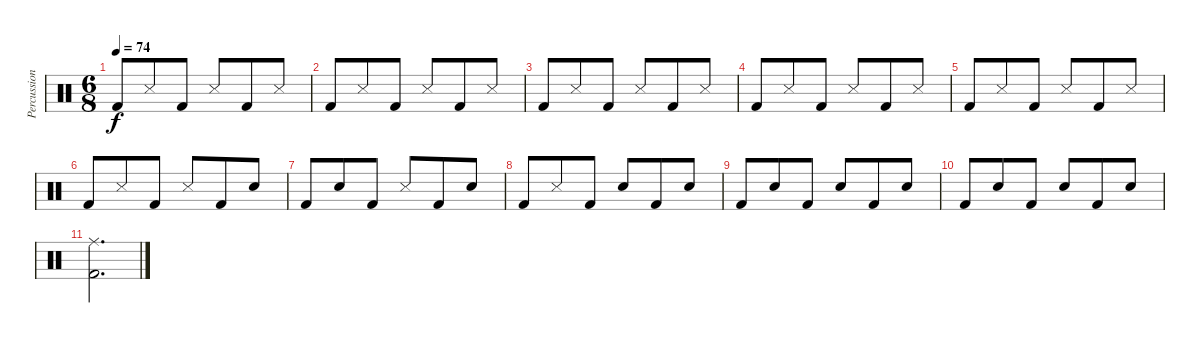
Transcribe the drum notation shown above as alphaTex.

\track ("Percussion" "Percussion") {instrument percussion}
\staff {score}
\articulation defaults
\ts (6 8)
\tempo 74
\clef neutral
\ks c "Kick (hit) 2".8{dy f} "Snare (side stick) 3".8 "Kick (hit) 2".8 "Snare (side stick) 3".8 "Kick (hit) 2".8 "Snare (side stick) 3".8
|
"Kick (hit) 2".8 "Snare (side stick) 3".8 "Kick (hit) 2".8 "Snare (side stick) 3".8 "Kick (hit) 2".8 "Snare (side stick) 3".8 |
"Kick (hit) 2".8 "Snare (side stick) 3".8 "Kick (hit) 2".8 "Snare (side stick) 3".8 "Kick (hit) 2".8 "Snare (side stick) 3".8 |
"Kick (hit) 2".8 "Snare (side stick) 3".8 "Kick (hit) 2".8 "Snare (side stick) 3".8 "Kick (hit) 2".8 "Snare (side stick) 3".8 |
"Kick (hit) 2".8 "Snare (side stick) 3".8 "Kick (hit) 2".8 "Snare (side stick) 3".8 "Kick (hit) 2".8 "Snare (side stick) 3".8 |
"Kick (hit) 2".8 "Snare (side stick) 3".8 "Kick (hit) 2".8 "Snare (side stick) 3".8 "Kick (hit) 2".8 "Snare (hit) 2".8 |
"Kick (hit) 2".8 "Snare (hit) 2".8 "Kick (hit) 2".8 "Snare (side stick) 3".8 "Kick (hit) 2".8 "Snare (hit) 2".8 |
"Kick (hit) 2".8 "Snare (side stick) 3".8 "Kick (hit) 2".8 "Snare (hit) 2".8 "Kick (hit) 2".8 "Snare (hit) 2".8 |
"Kick (hit) 2".8 "Snare (hit) 2".8 "Kick (hit) 2".8 "Snare (hit) 2".8 "Kick (hit) 2".8 "Snare (hit) 2".8 |
"Kick (hit) 2".8 "Snare (hit) 2".8 "Kick (hit) 2".8 "Snare (hit) 2".8 "Kick (hit) 2".8 "Snare (hit) 2".8 |
("Ride (middle)" "Kick (hit) 2").2{d}
